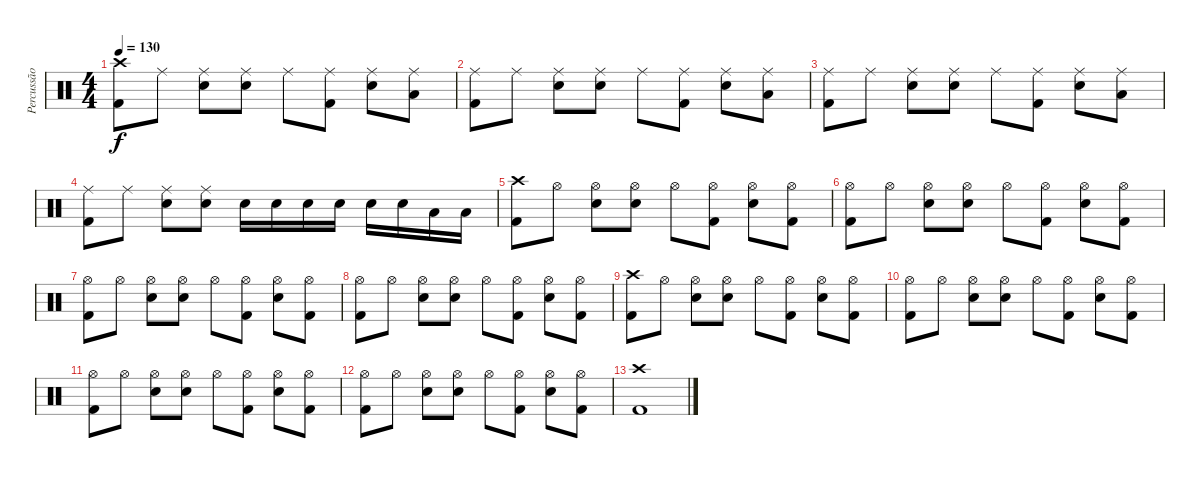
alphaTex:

\track ("Percussão" "Percussão") {instrument percussion}
\staff {score}
\articulation defaults
\ts (4 4)
\tempo 130
\clef neutral
\ks c
("Crash high (hit)" "Kick (hit) 2").8{dy f} "Ride (middle)".8 ("Ride (middle)" "Electric Snare (hit)").8 ("Ride (middle)" "Electric Snare (hit)").8 "Ride (middle)".8 ("Ride (middle)" "Kick (hit) 2").8 ("Ride (middle)" "Electric Snare (hit)").8 ("Ride (middle)" "Low Tom (hit)").8 |
("Ride (middle)" "Kick (hit) 2").8 "Ride (middle)".8 ("Ride (middle)" "Electric Snare (hit)").8 ("Ride (middle)" "Electric Snare (hit)").8 "Ride (middle)".8 ("Ride (middle)" "Kick (hit) 2").8 ("Ride (middle)" "Electric Snare (hit)").8 ("Ride (middle)" "Low Tom (hit)").8 |
("Ride (middle)" "Kick (hit) 2").8 "Ride (middle)".8 ("Ride (middle)" "Electric Snare (hit)").8 ("Ride (middle)" "Electric Snare (hit)").8 "Ride (middle)".8 ("Ride (middle)" "Kick (hit) 2").8 ("Ride (middle)" "Electric Snare (hit)").8 ("Ride (middle)" "Low Tom (hit)").8 |
("Ride (middle)" "Kick (hit) 2").8 "Ride (middle)".8 ("Ride (middle)" "Electric Snare (hit)").8 ("Ride (middle)" "Electric Snare (hit)").8 "Electric Snare (hit)".16 "Electric Snare (hit)".16 "Electric Snare (hit)".16 "Electric Snare (hit)".16 "Electric Snare (hit)".16 "Electric Snare (hit)".16 "Low Tom (hit)".16 "Low Tom (hit)".16 |
("Crash high (hit)" "Kick (hit) 2").8 "Hi-Hat (open)".8 ("Hi-Hat (open)" "Electric Snare (hit)").8 ("Hi-Hat (open)" "Electric Snare (hit)").8 "Hi-Hat (open)".8 ("Hi-Hat (open)" "Kick (hit) 2").8 ("Hi-Hat (open)" "Electric Snare (hit)").8 ("Hi-Hat (open)" "Kick (hit) 2").8 |
("Hi-Hat (open)" "Kick (hit) 2").8 "Hi-Hat (open)".8 ("Hi-Hat (open)" "Electric Snare (hit)").8 ("Hi-Hat (open)" "Electric Snare (hit)").8 "Hi-Hat (open)".8 ("Hi-Hat (open)" "Kick (hit) 2").8 ("Hi-Hat (open)" "Electric Snare (hit)").8 ("Hi-Hat (open)" "Kick (hit) 2").8 |
("Hi-Hat (open)" "Kick (hit) 2").8 "Hi-Hat (open)".8 ("Hi-Hat (open)" "Electric Snare (hit)").8 ("Hi-Hat (open)" "Electric Snare (hit)").8 "Hi-Hat (open)".8 ("Hi-Hat (open)" "Kick (hit) 2").8 ("Hi-Hat (open)" "Electric Snare (hit)").8 ("Hi-Hat (open)" "Kick (hit) 2").8 |
("Hi-Hat (open)" "Kick (hit) 2").8 "Hi-Hat (open)".8 ("Hi-Hat (open)" "Electric Snare (hit)").8 ("Hi-Hat (open)" "Electric Snare (hit)").8 "Hi-Hat (open)".8 ("Hi-Hat (open)" "Kick (hit) 2").8 ("Hi-Hat (open)" "Electric Snare (hit)").8 ("Hi-Hat (open)" "Kick (hit) 2").8 |
("Crash high (hit)" "Kick (hit) 2").8 "Hi-Hat (open)".8 ("Hi-Hat (open)" "Electric Snare (hit)").8 ("Hi-Hat (open)" "Electric Snare (hit)").8 "Hi-Hat (open)".8 ("Hi-Hat (open)" "Kick (hit) 2").8 ("Hi-Hat (open)" "Electric Snare (hit)").8 ("Hi-Hat (open)" "Kick (hit) 2").8 |
("Hi-Hat (open)" "Kick (hit) 2").8 "Hi-Hat (open)".8 ("Hi-Hat (open)" "Electric Snare (hit)").8 ("Hi-Hat (open)" "Electric Snare (hit)").8 "Hi-Hat (open)".8 ("Hi-Hat (open)" "Kick (hit) 2").8 ("Hi-Hat (open)" "Electric Snare (hit)").8 ("Hi-Hat (open)" "Kick (hit) 2").8 |
("Hi-Hat (open)" "Kick (hit) 2").8 "Hi-Hat (open)".8 ("Hi-Hat (open)" "Electric Snare (hit)").8 ("Hi-Hat (open)" "Electric Snare (hit)").8 "Hi-Hat (open)".8 ("Hi-Hat (open)" "Kick (hit) 2").8 ("Hi-Hat (open)" "Electric Snare (hit)").8 ("Hi-Hat (open)" "Kick (hit) 2").8 |
("Hi-Hat (open)" "Kick (hit) 2").8 "Hi-Hat (open)".8 ("Hi-Hat (open)" "Electric Snare (hit)").8 ("Hi-Hat (open)" "Electric Snare (hit)").8 "Hi-Hat (open)".8 ("Hi-Hat (open)" "Kick (hit) 2").8 ("Hi-Hat (open)" "Electric Snare (hit)").8 ("Hi-Hat (open)" "Kick (hit) 2").8 |
("Crash high (hit)" "Kick (hit) 2").1
